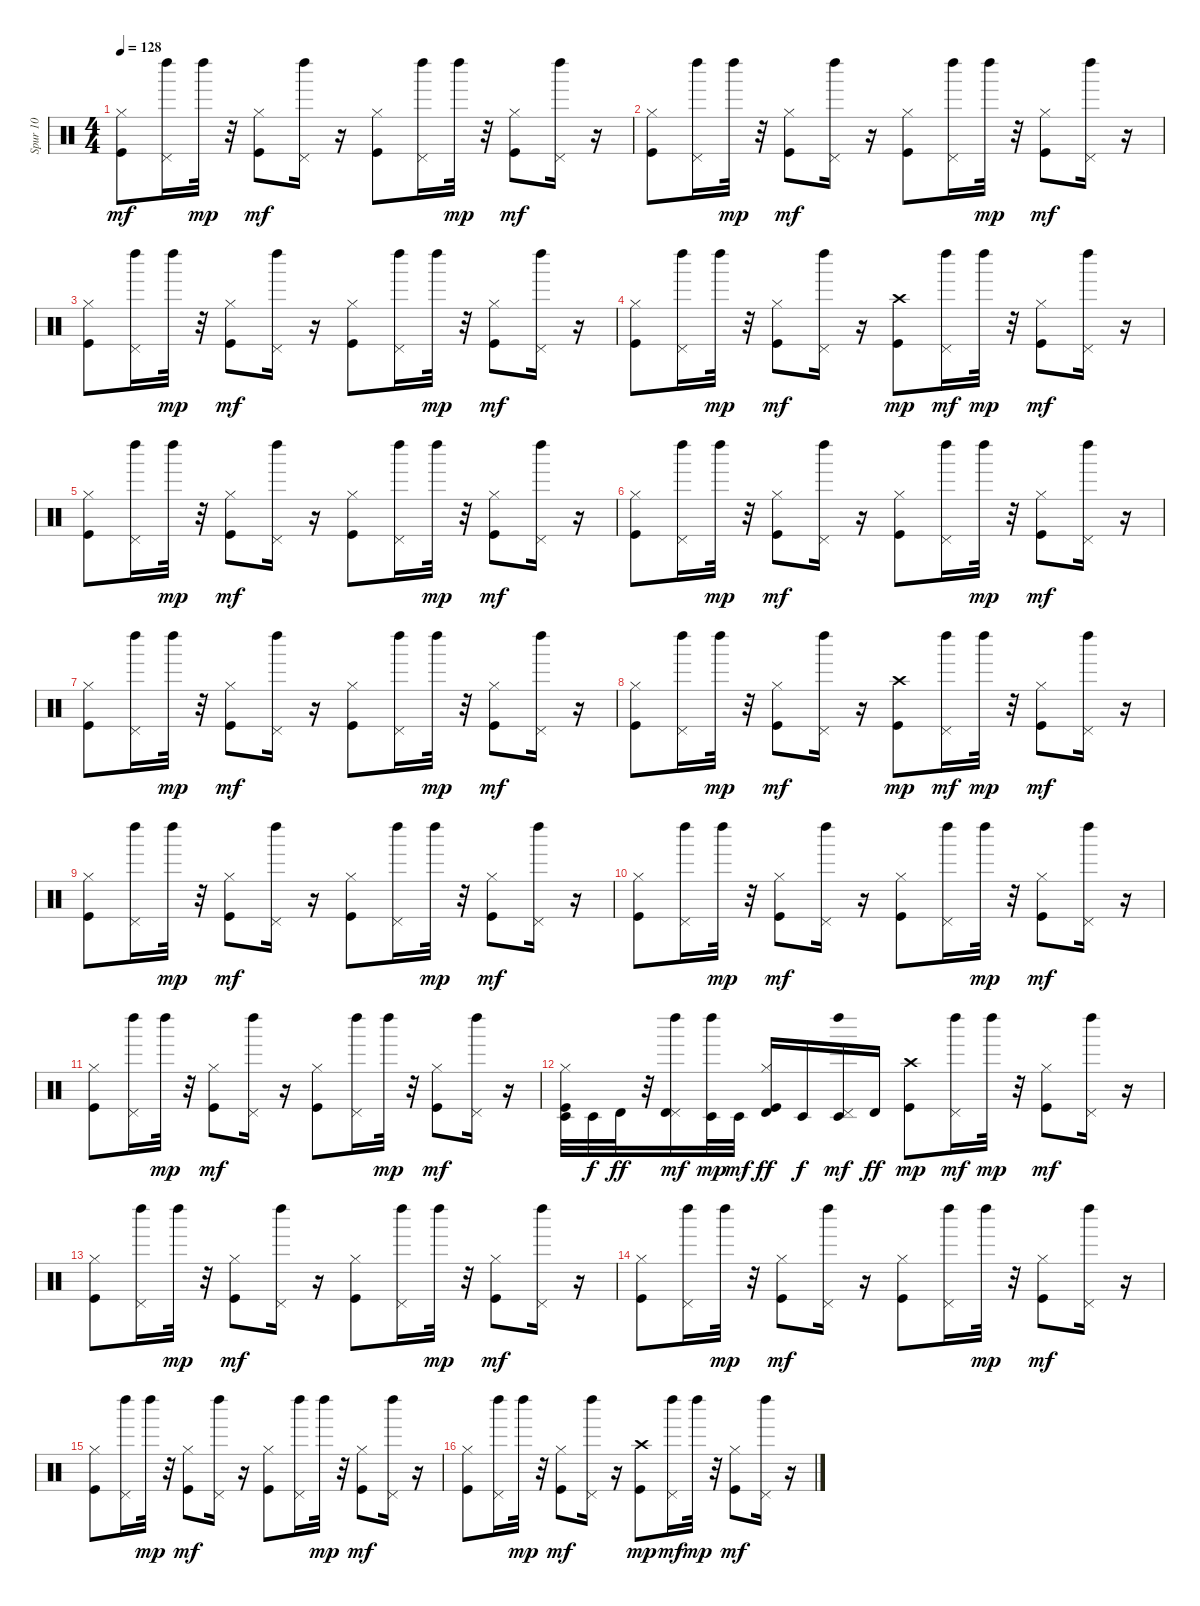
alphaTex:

\track ("Spur 10" "Spur 10") {instrument percussion}
\staff {score}
\articulation defaults
\ts (4 4)
\tempo 128
\clef neutral
\ks c
("Kick (hit)" "Hi-Hat (closed)").8{dy mf} ("Pedal Hi-Hat (hit)" "Left Maraca (hit)").16 "Left Maraca (hit)".32{dy mp} r.32 ("Kick (hit)" "Hi-Hat (closed)").8{dy mf} ("Pedal Hi-Hat (hit)" "Left Maraca (hit)").16 r.16 ("Kick (hit)" "Hi-Hat (closed)").8 ("Pedal Hi-Hat (hit)" "Left Maraca (hit)").16 "Left Maraca (hit)".32{dy mp} r.32 ("Kick (hit)" "Hi-Hat (closed)").8{dy mf} ("Pedal Hi-Hat (hit)" "Left Maraca (hit)").16 r.16 |
("Kick (hit)" "Hi-Hat (closed)").8 ("Pedal Hi-Hat (hit)" "Left Maraca (hit)").16 "Left Maraca (hit)".32{dy mp} r.32 ("Kick (hit)" "Hi-Hat (closed)").8{dy mf} ("Pedal Hi-Hat (hit)" "Left Maraca (hit)").16 r.16 ("Kick (hit)" "Hi-Hat (closed)").8 ("Pedal Hi-Hat (hit)" "Left Maraca (hit)").16 "Left Maraca (hit)".32{dy mp} r.32 ("Kick (hit)" "Hi-Hat (closed)").8{dy mf} ("Pedal Hi-Hat (hit)" "Left Maraca (hit)").16 r.16 |
("Kick (hit)" "Hi-Hat (closed)").8 ("Pedal Hi-Hat (hit)" "Left Maraca (hit)").16 "Left Maraca (hit)".32{dy mp} r.32 ("Kick (hit)" "Hi-Hat (closed)").8{dy mf} ("Pedal Hi-Hat (hit)" "Left Maraca (hit)").16 r.16 ("Kick (hit)" "Hi-Hat (closed)").8 ("Pedal Hi-Hat (hit)" "Left Maraca (hit)").16 "Left Maraca (hit)".32{dy mp} r.32 ("Kick (hit)" "Hi-Hat (closed)").8{dy mf} ("Pedal Hi-Hat (hit)" "Left Maraca (hit)").16 r.16 |
("Kick (hit)" "Hi-Hat (closed)").8 ("Pedal Hi-Hat (hit)" "Left Maraca (hit)").16 "Left Maraca (hit)".32{dy mp} r.32 ("Kick (hit)" "Hi-Hat (closed)").8{dy mf} ("Pedal Hi-Hat (hit)" "Left Maraca (hit)").16 r.16 ("Kick (hit)" "Crash high (hit)").8{dy mp} ("Pedal Hi-Hat (hit)" "Left Maraca (hit)").16{dy mf} "Left Maraca (hit)".32{dy mp} r.32 ("Kick (hit)" "Hi-Hat (closed)").8{dy mf} ("Pedal Hi-Hat (hit)" "Left Maraca (hit)").16 r.16 |
("Kick (hit)" "Hi-Hat (closed)").8 ("Pedal Hi-Hat (hit)" "Left Maraca (hit)").16 "Left Maraca (hit)".32{dy mp} r.32 ("Kick (hit)" "Hi-Hat (closed)").8{dy mf} ("Pedal Hi-Hat (hit)" "Left Maraca (hit)").16 r.16 ("Kick (hit)" "Hi-Hat (closed)").8 ("Pedal Hi-Hat (hit)" "Left Maraca (hit)").16 "Left Maraca (hit)".32{dy mp} r.32 ("Kick (hit)" "Hi-Hat (closed)").8{dy mf} ("Pedal Hi-Hat (hit)" "Left Maraca (hit)").16 r.16 |
("Kick (hit)" "Hi-Hat (closed)").8 ("Pedal Hi-Hat (hit)" "Left Maraca (hit)").16 "Left Maraca (hit)".32{dy mp} r.32 ("Kick (hit)" "Hi-Hat (closed)").8{dy mf} ("Pedal Hi-Hat (hit)" "Left Maraca (hit)").16 r.16 ("Kick (hit)" "Hi-Hat (closed)").8 ("Pedal Hi-Hat (hit)" "Left Maraca (hit)").16 "Left Maraca (hit)".32{dy mp} r.32 ("Kick (hit)" "Hi-Hat (closed)").8{dy mf} ("Pedal Hi-Hat (hit)" "Left Maraca (hit)").16 r.16 |
("Kick (hit)" "Hi-Hat (closed)").8 ("Pedal Hi-Hat (hit)" "Left Maraca (hit)").16 "Left Maraca (hit)".32{dy mp} r.32 ("Kick (hit)" "Hi-Hat (closed)").8{dy mf} ("Pedal Hi-Hat (hit)" "Left Maraca (hit)").16 r.16 ("Kick (hit)" "Hi-Hat (closed)").8 ("Pedal Hi-Hat (hit)" "Left Maraca (hit)").16 "Left Maraca (hit)".32{dy mp} r.32 ("Kick (hit)" "Hi-Hat (closed)").8{dy mf} ("Pedal Hi-Hat (hit)" "Left Maraca (hit)").16 r.16 |
("Kick (hit)" "Hi-Hat (closed)").8 ("Pedal Hi-Hat (hit)" "Left Maraca (hit)").16 "Left Maraca (hit)".32{dy mp} r.32 ("Kick (hit)" "Hi-Hat (closed)").8{dy mf} ("Pedal Hi-Hat (hit)" "Left Maraca (hit)").16 r.16 ("Kick (hit)" "Crash high (hit)").8{dy mp} ("Pedal Hi-Hat (hit)" "Left Maraca (hit)").16{dy mf} "Left Maraca (hit)".32{dy mp} r.32 ("Kick (hit)" "Hi-Hat (closed)").8{dy mf} ("Pedal Hi-Hat (hit)" "Left Maraca (hit)").16 r.16 |
("Kick (hit)" "Hi-Hat (closed)").8 ("Pedal Hi-Hat (hit)" "Left Maraca (hit)").16 "Left Maraca (hit)".32{dy mp} r.32 ("Kick (hit)" "Hi-Hat (closed)").8{dy mf} ("Pedal Hi-Hat (hit)" "Left Maraca (hit)").16 r.16 ("Kick (hit)" "Hi-Hat (closed)").8 ("Pedal Hi-Hat (hit)" "Left Maraca (hit)").16 "Left Maraca (hit)".32{dy mp} r.32 ("Kick (hit)" "Hi-Hat (closed)").8{dy mf} ("Pedal Hi-Hat (hit)" "Left Maraca (hit)").16 r.16 |
("Kick (hit)" "Hi-Hat (closed)").8 ("Pedal Hi-Hat (hit)" "Left Maraca (hit)").16 "Left Maraca (hit)".32{dy mp} r.32 ("Kick (hit)" "Hi-Hat (closed)").8{dy mf} ("Pedal Hi-Hat (hit)" "Left Maraca (hit)").16 r.16 ("Kick (hit)" "Hi-Hat (closed)").8 ("Pedal Hi-Hat (hit)" "Left Maraca (hit)").16 "Left Maraca (hit)".32{dy mp} r.32 ("Kick (hit)" "Hi-Hat (closed)").8{dy mf} ("Pedal Hi-Hat (hit)" "Left Maraca (hit)").16 r.16 |
("Kick (hit)" "Hi-Hat (closed)").8 ("Pedal Hi-Hat (hit)" "Left Maraca (hit)").16 "Left Maraca (hit)".32{dy mp} r.32 ("Kick (hit)" "Hi-Hat (closed)").8{dy mf} ("Pedal Hi-Hat (hit)" "Left Maraca (hit)").16 r.16 ("Kick (hit)" "Hi-Hat (closed)").8 ("Pedal Hi-Hat (hit)" "Left Maraca (hit)").16 "Left Maraca (hit)".32{dy mp} r.32 ("Kick (hit)" "Hi-Hat (closed)").8{dy mf} ("Pedal Hi-Hat (hit)" "Left Maraca (hit)").16 r.16 |
("Kick (hit)" "Hi-Hat (closed)" "Timbale low (hit)").32 "Timbale low (hit)".32{dy f} "Timbale high (hit)".32{dy ff} r.32 ("Pedal Hi-Hat (hit)" "Timbale high (hit)" "Left Maraca (hit)").16{dy mf} ("Timbale low (hit)" "Left Maraca (hit)").32{dy mp} "Timbale low (hit)".32{dy mf} ("Kick (hit)" "Hi-Hat (closed)" "Timbale high (hit)").16{dy ff} "Timbale low (hit)".16{dy f} ("Pedal Hi-Hat (hit)" "Timbale low (hit)" "Left Maraca (hit)").16{dy mf} "Timbale high (hit)".16{dy ff} ("Kick (hit)" "Crash high (hit)").8{dy mp} ("Pedal Hi-Hat (hit)" "Left Maraca (hit)").16{dy mf} "Left Maraca (hit)".32{dy mp} r.32 ("Kick (hit)" "Hi-Hat (closed)").8{dy mf} ("Pedal Hi-Hat (hit)" "Left Maraca (hit)").16 r.16 |
("Kick (hit)" "Hi-Hat (closed)").8 ("Pedal Hi-Hat (hit)" "Left Maraca (hit)").16 "Left Maraca (hit)".32{dy mp} r.32 ("Kick (hit)" "Hi-Hat (closed)").8{dy mf} ("Pedal Hi-Hat (hit)" "Left Maraca (hit)").16 r.16 ("Kick (hit)" "Hi-Hat (closed)").8 ("Pedal Hi-Hat (hit)" "Left Maraca (hit)").16 "Left Maraca (hit)".32{dy mp} r.32 ("Kick (hit)" "Hi-Hat (closed)").8{dy mf} ("Pedal Hi-Hat (hit)" "Left Maraca (hit)").16 r.16 |
("Kick (hit)" "Hi-Hat (closed)").8 ("Pedal Hi-Hat (hit)" "Left Maraca (hit)").16 "Left Maraca (hit)".32{dy mp} r.32 ("Kick (hit)" "Hi-Hat (closed)").8{dy mf} ("Pedal Hi-Hat (hit)" "Left Maraca (hit)").16 r.16 ("Kick (hit)" "Hi-Hat (closed)").8 ("Pedal Hi-Hat (hit)" "Left Maraca (hit)").16 "Left Maraca (hit)".32{dy mp} r.32 ("Kick (hit)" "Hi-Hat (closed)").8{dy mf} ("Pedal Hi-Hat (hit)" "Left Maraca (hit)").16 r.16 |
("Kick (hit)" "Hi-Hat (closed)").8 ("Pedal Hi-Hat (hit)" "Left Maraca (hit)").16 "Left Maraca (hit)".32{dy mp} r.32 ("Kick (hit)" "Hi-Hat (closed)").8{dy mf} ("Pedal Hi-Hat (hit)" "Left Maraca (hit)").16 r.16 ("Kick (hit)" "Hi-Hat (closed)").8 ("Pedal Hi-Hat (hit)" "Left Maraca (hit)").16 "Left Maraca (hit)".32{dy mp} r.32 ("Kick (hit)" "Hi-Hat (closed)").8{dy mf} ("Pedal Hi-Hat (hit)" "Left Maraca (hit)").16 r.16 |
("Kick (hit)" "Hi-Hat (closed)").8 ("Pedal Hi-Hat (hit)" "Left Maraca (hit)").16 "Left Maraca (hit)".32{dy mp} r.32 ("Kick (hit)" "Hi-Hat (closed)").8{dy mf} ("Pedal Hi-Hat (hit)" "Left Maraca (hit)").16 r.16 ("Kick (hit)" "Crash high (hit)").8{dy mp} ("Pedal Hi-Hat (hit)" "Left Maraca (hit)").16{dy mf} "Left Maraca (hit)".32{dy mp} r.32 ("Kick (hit)" "Hi-Hat (closed)").8{dy mf} ("Pedal Hi-Hat (hit)" "Left Maraca (hit)").16 r.16
